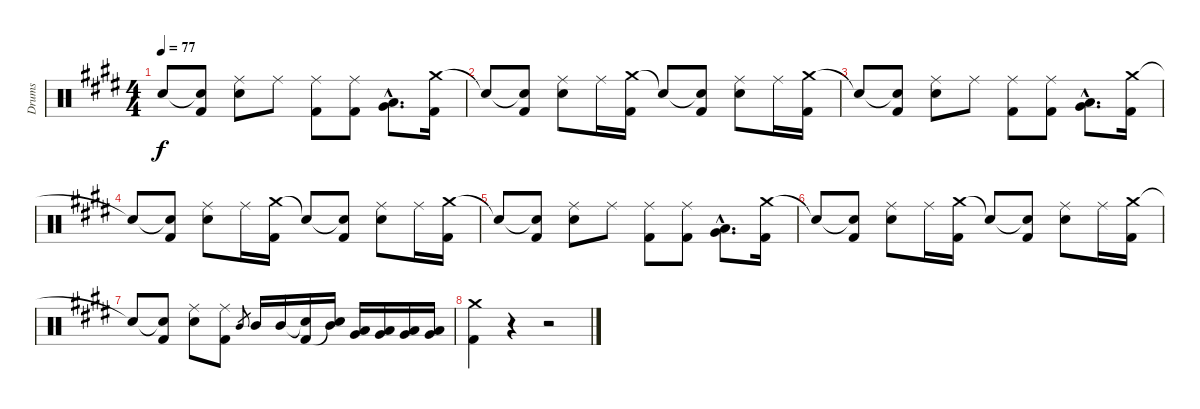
\track ("Drums" "Drums") {instrument percussion}
\staff {score}
\articulation defaults
\ts (4 4)
\tempo 77
\clef neutral
\ks e "Snare (hit)"{t}.8{dy f}
("Snare (hit)"{t} "Kick (hit) 2").8 ("Ride (middle)" "Electric Snare (hit)").8 "Ride (middle)".8 ("Ride (middle)" "Kick (hit) 2").8 ("Ride (middle)" "Kick (hit) 2").8 ("Low Tom (hit)"{hac} "Very Low Tom (hit)"{hac}).8{d} ("Crash medium (hit)" "Kick (hit) 2").16 |
"Snare (hit)"{t}.8 ("Snare (hit)"{t} "Kick (hit) 2").8 ("Ride (middle)" "Electric Snare (hit)").8 "Ride (middle)".16 ("Crash medium (hit)" "Kick (hit) 2").16 "Snare (hit)"{t}.8 ("Snare (hit)"{t} "Kick (hit) 2").8 ("Ride (middle)" "Electric Snare (hit)").8 "Ride (middle)".16 ("Crash medium (hit)" "Kick (hit) 2").16 |
"Snare (hit)"{t}.8 ("Snare (hit)"{t} "Kick (hit) 2").8 ("Ride (middle)" "Electric Snare (hit)").8 "Ride (middle)".8 ("Ride (middle)" "Kick (hit) 2").8 ("Ride (middle)" "Kick (hit) 2").8 ("Low Tom (hit)"{hac} "Very Low Tom (hit)"{hac}).8{d} ("Crash medium (hit)" "Kick (hit) 2").16 |
"Snare (hit)"{t}.8 ("Snare (hit)"{t} "Kick (hit) 2").8 ("Ride (middle)" "Electric Snare (hit)").8 "Ride (middle)".16 ("Crash medium (hit)" "Kick (hit) 2").16 "Snare (hit)"{t}.8 ("Snare (hit)"{t} "Kick (hit) 2").8 ("Ride (middle)" "Electric Snare (hit)").8 "Ride (middle)".16 ("Crash medium (hit)" "Kick (hit) 2").16 |
"Snare (hit)"{t}.8 ("Snare (hit)"{t} "Kick (hit) 2").8 ("Ride (middle)" "Electric Snare (hit)").8 "Ride (middle)".8 ("Ride (middle)" "Kick (hit) 2").8 ("Ride (middle)" "Kick (hit) 2").8 ("Low Tom (hit)"{hac} "Very Low Tom (hit)"{hac}).8{d} ("Crash medium (hit)" "Kick (hit) 2").16 |
"Snare (hit)"{t}.8 ("Snare (hit)"{t} "Kick (hit) 2").8 ("Ride (middle)" "Electric Snare (hit)").8 "Ride (middle)".16 ("Crash medium (hit)" "Kick (hit) 2").16 "Snare (hit)"{t}.8 ("Snare (hit)"{t} "Kick (hit) 2").8 ("Ride (middle)" "Electric Snare (hit)").8 "Ride (middle)".16 ("Crash medium (hit)" "Kick (hit) 2").16 |
"Snare (hit)"{t}.8 ("Snare (hit)"{t} "Kick (hit) 2").8 ("Ride (middle)" "Electric Snare (hit)").8 ("Ride (middle)" "Kick (hit) 2").8 "Mid Tom (hit)".8{gr} "Mid Tom (hit)".16 "Mid Tom (hit)".16 ("Snare (hit)"{t} "Kick (hit) 2").16 ("Mid Tom (hit)" "Snare (hit)"{t}).16 ("Low Tom (hit)" "Very Low Tom (hit)").16 ("Low Tom (hit)" "Very Low Tom (hit)").16 ("Low Tom (hit)" "Very Low Tom (hit)").16 ("Low Tom (hit)" "Very Low Tom (hit)").16 |
("Crash medium (hit)" "Kick (hit) 2").4 r.4 r.2
